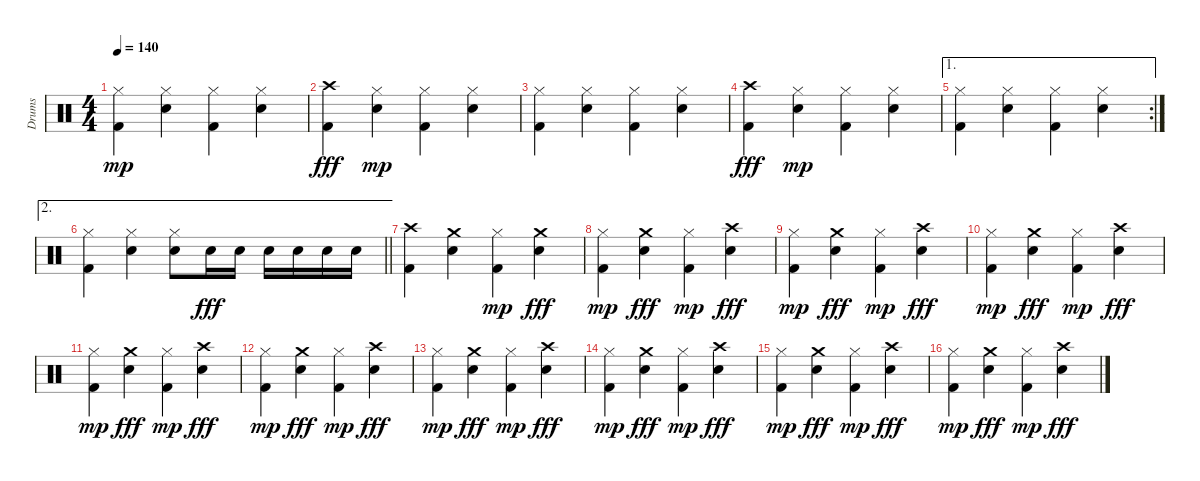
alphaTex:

\track ("Drums" "Drums") {instrument percussion}
\staff {score}
\articulation defaults
\ts (4 4)
\tempo 140
\clef neutral
\ks c
("Kick (hit) 2" "Hi-Hat (closed)").4{dy mp} ("Electric Snare (hit)" "Hi-Hat (closed)").4 ("Kick (hit) 2" "Hi-Hat (closed)").4 ("Electric Snare (hit)" "Hi-Hat (closed)").4 |
("Kick (hit) 2" "Crash high (hit)").4{dy fff} ("Electric Snare (hit)" "Hi-Hat (closed)").4{dy mp} ("Kick (hit) 2" "Hi-Hat (closed)").4 ("Electric Snare (hit)" "Hi-Hat (closed)").4 |
("Kick (hit) 2" "Hi-Hat (closed)").4 ("Electric Snare (hit)" "Hi-Hat (closed)").4 ("Kick (hit) 2" "Hi-Hat (closed)").4 ("Electric Snare (hit)" "Hi-Hat (closed)").4 |
("Kick (hit) 2" "Crash high (hit)").4{dy fff} ("Electric Snare (hit)" "Hi-Hat (closed)").4{dy mp} ("Kick (hit) 2" "Hi-Hat (closed)").4 ("Electric Snare (hit)" "Hi-Hat (closed)").4 |
\ae 1
\rc 2
("Kick (hit) 2" "Hi-Hat (closed)").4 ("Electric Snare (hit)" "Hi-Hat (closed)").4 ("Kick (hit) 2" "Hi-Hat (closed)").4 ("Electric Snare (hit)" "Hi-Hat (closed)").4 |
\ae 2
\barLineRight lightlight
("Kick (hit) 2" "Hi-Hat (closed)").4 ("Electric Snare (hit)" "Hi-Hat (closed)").4 ("Electric Snare (hit)" "Hi-Hat (closed)").8 "Electric Snare (hit)".16{dy fff} "Electric Snare (hit)".16 "Electric Snare (hit)".16 "Electric Snare (hit)".16 "Electric Snare (hit)".16 "Electric Snare (hit)".16 |
("Kick (hit) 2" "Crash high (hit)").4 ("Electric Snare (hit)" "Crash medium (hit)").4 ("Kick (hit) 2" "Hi-Hat (closed)").4{dy mp} ("Electric Snare (hit)" "Crash medium (hit)").4{dy fff} |
("Kick (hit) 2" "Hi-Hat (closed)").4{dy mp} ("Electric Snare (hit)" "Crash medium (hit)").4{dy fff} ("Kick (hit) 2" "Hi-Hat (closed)").4{dy mp} ("Electric Snare (hit)" "Crash high (hit)").4{dy fff} |
("Kick (hit) 2" "Hi-Hat (closed)").4{dy mp} ("Electric Snare (hit)" "Crash medium (hit)").4{dy fff} ("Kick (hit) 2" "Hi-Hat (closed)").4{dy mp} ("Electric Snare (hit)" "Crash high (hit)").4{dy fff} |
("Kick (hit) 2" "Hi-Hat (closed)").4{dy mp} ("Electric Snare (hit)" "Crash medium (hit)").4{dy fff} ("Kick (hit) 2" "Hi-Hat (closed)").4{dy mp} ("Electric Snare (hit)" "Crash high (hit)").4{dy fff} |
("Kick (hit) 2" "Hi-Hat (closed)").4{dy mp} ("Electric Snare (hit)" "Crash medium (hit)").4{dy fff} ("Kick (hit) 2" "Hi-Hat (closed)").4{dy mp} ("Electric Snare (hit)" "Crash high (hit)").4{dy fff} |
("Kick (hit) 2" "Hi-Hat (closed)").4{dy mp} ("Electric Snare (hit)" "Crash medium (hit)").4{dy fff} ("Kick (hit) 2" "Hi-Hat (closed)").4{dy mp} ("Electric Snare (hit)" "Crash high (hit)").4{dy fff} |
("Kick (hit) 2" "Hi-Hat (closed)").4{dy mp} ("Electric Snare (hit)" "Crash medium (hit)").4{dy fff} ("Kick (hit) 2" "Hi-Hat (closed)").4{dy mp} ("Electric Snare (hit)" "Crash high (hit)").4{dy fff} |
("Kick (hit) 2" "Hi-Hat (closed)").4{dy mp} ("Electric Snare (hit)" "Crash medium (hit)").4{dy fff} ("Kick (hit) 2" "Hi-Hat (closed)").4{dy mp} ("Electric Snare (hit)" "Crash high (hit)").4{dy fff} |
("Kick (hit) 2" "Hi-Hat (closed)").4{dy mp} ("Electric Snare (hit)" "Crash medium (hit)").4{dy fff} ("Kick (hit) 2" "Hi-Hat (closed)").4{dy mp} ("Electric Snare (hit)" "Crash high (hit)").4{dy fff} |
("Kick (hit) 2" "Hi-Hat (closed)").4{dy mp} ("Electric Snare (hit)" "Crash medium (hit)").4{dy fff} ("Kick (hit) 2" "Hi-Hat (closed)").4{dy mp} ("Electric Snare (hit)" "Crash high (hit)").4{dy fff}
